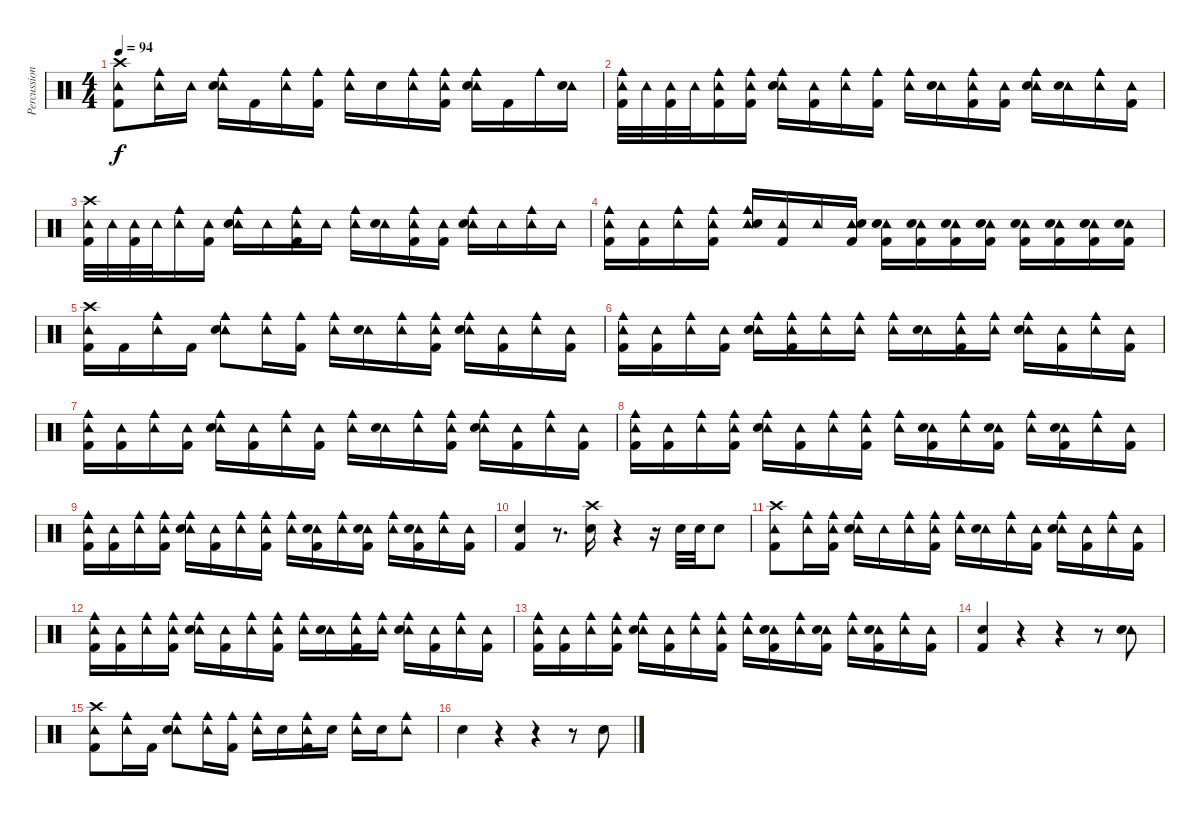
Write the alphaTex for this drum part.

\track ("Percussion" "Percussion") {instrument percussion}
\staff {score}
\articulation defaults
\ts (4 4)
\tempo 94
\clef neutral
\ks c
("Crash high (hit)" "Tambourine (hit)" "Kick (hit) 2").8{dy f} ("Tambourine (hit)" "Cowbell medium (hit)").16 "Tambourine (hit)".16 ("Tambourine (hit)" "Cowbell medium (hit)" "Electric Snare (hit)").16 "Kick (hit) 2".16 ("Tambourine (hit)" "Cowbell medium (hit)").16 ("Cowbell medium (hit)" "Kick (hit) 2").16 ("Tambourine (hit)" "Cowbell medium (hit)").16 "Electric Snare (hit)".16 ("Tambourine (hit)" "Cowbell medium (hit)").16 ("Tambourine (hit)" "Cowbell medium (hit)" "Kick (hit) 2").16 ("Tambourine (hit)" "Cowbell medium (hit)" "Electric Snare (hit)").16 "Kick (hit) 2".16 "Cowbell medium (hit)".16 ("Tambourine (hit)" "Electric Snare (hit)").16 |
("Tambourine (hit)" "Cowbell medium (hit)" "Kick (hit) 2").32 "Tambourine (hit)".32 ("Tambourine (hit)" "Kick (hit) 2").32 "Tambourine (hit)".32 ("Tambourine (hit)" "Cowbell medium (hit)" "Kick (hit) 2").16 ("Tambourine (hit)" "Cowbell medium (hit)" "Kick (hit) 2").16 ("Tambourine (hit)" "Cowbell medium (hit)" "Electric Snare (hit)").16 ("Tambourine (hit)" "Kick (hit) 2").16 ("Tambourine (hit)" "Cowbell medium (hit)").16 ("Cowbell medium (hit)" "Kick (hit) 2").16 ("Tambourine (hit)" "Cowbell medium (hit)").16 ("Tambourine (hit)" "Electric Snare (hit)").16 ("Tambourine (hit)" "Cowbell medium (hit)" "Kick (hit) 2").16 ("Tambourine (hit)" "Kick (hit) 2").16 ("Tambourine (hit)" "Cowbell medium (hit)" "Electric Snare (hit)").16 ("Tambourine (hit)" "Electric Snare (hit)").16 ("Tambourine (hit)" "Cowbell medium (hit)").16 ("Tambourine (hit)" "Kick (hit) 2").16 |
("Crash high (hit)" "Tambourine (hit)" "Kick (hit) 2").32 "Tambourine (hit)".32 ("Tambourine (hit)" "Kick (hit) 2").32 "Tambourine (hit)".32 ("Tambourine (hit)" "Cowbell medium (hit)").16 ("Tambourine (hit)" "Kick (hit) 2").16 ("Tambourine (hit)" "Cowbell medium (hit)" "Electric Snare (hit)").16 "Tambourine (hit)".16 ("Tambourine (hit)" "Cowbell medium (hit)" "Kick (hit) 2").16 "Tambourine (hit)".16 ("Tambourine (hit)" "Cowbell medium (hit)").16 ("Tambourine (hit)" "Electric Snare (hit)").16 ("Tambourine (hit)" "Cowbell medium (hit)" "Kick (hit) 2").16 ("Tambourine (hit)" "Kick (hit) 2").16 ("Tambourine (hit)" "Cowbell medium (hit)" "Electric Snare (hit)").16 "Tambourine (hit)".16 ("Tambourine (hit)" "Cowbell medium (hit)").16 "Tambourine (hit)".16 |
("Tambourine (hit)" "Cowbell medium (hit)" "Kick (hit) 2").16 ("Tambourine (hit)" "Kick (hit) 2").16 ("Tambourine (hit)" "Cowbell medium (hit)").16 ("Tambourine (hit)" "Cowbell medium (hit)" "Kick (hit) 2").16 ("Tambourine (hit)" "Cowbell medium (hit)" "Electric Snare (hit)").16 ("Tambourine (hit)" "Kick (hit) 2").16 "Tambourine (hit)".16 ("Tambourine (hit)" "Electric Snare (hit)" "Kick (hit) 2").16 ("Tambourine (hit)" "Electric Snare (hit)" "Kick (hit) 2").16 ("Tambourine (hit)" "Electric Snare (hit)" "Kick (hit) 2").16 ("Tambourine (hit)" "Electric Snare (hit)" "Kick (hit) 2").16 ("Tambourine (hit)" "Electric Snare (hit)" "Kick (hit) 2").16 ("Tambourine (hit)" "Electric Snare (hit)" "Kick (hit) 2").16 ("Tambourine (hit)" "Electric Snare (hit)" "Kick (hit) 2").16 ("Tambourine (hit)" "Electric Snare (hit)" "Kick (hit) 2").16 ("Tambourine (hit)" "Electric Snare (hit)" "Kick (hit) 2").16 |
("Crash high (hit)" "Tambourine (hit)" "Kick (hit) 2").16 "Kick (hit) 2".16 ("Tambourine (hit)" "Cowbell medium (hit)").16 "Kick (hit) 2".16 ("Tambourine (hit)" "Cowbell medium (hit)" "Electric Snare (hit)").8 ("Tambourine (hit)" "Cowbell medium (hit)").16 ("Cowbell medium (hit)" "Kick (hit) 2").16 ("Tambourine (hit)" "Cowbell medium (hit)").16 ("Tambourine (hit)" "Electric Snare (hit)").16 ("Tambourine (hit)" "Cowbell medium (hit)").16 ("Tambourine (hit)" "Cowbell medium (hit)" "Kick (hit) 2").16 ("Tambourine (hit)" "Cowbell medium (hit)" "Electric Snare (hit)").16 ("Tambourine (hit)" "Kick (hit) 2").16 ("Tambourine (hit)" "Cowbell medium (hit)").16 ("Tambourine (hit)" "Kick (hit) 2").16 |
("Tambourine (hit)" "Cowbell medium (hit)" "Kick (hit) 2").16 ("Tambourine (hit)" "Kick (hit) 2").16 ("Tambourine (hit)" "Cowbell medium (hit)").16 ("Tambourine (hit)" "Kick (hit) 2").16 ("Tambourine (hit)" "Cowbell medium (hit)" "Electric Snare (hit)").16 ("Tambourine (hit)" "Cowbell medium (hit)" "Kick (hit) 2").16 ("Tambourine (hit)" "Cowbell medium (hit)").16 ("Tambourine (hit)" "Cowbell medium (hit)").16 ("Tambourine (hit)" "Cowbell medium (hit)").16 ("Tambourine (hit)" "Electric Snare (hit)").16 ("Tambourine (hit)" "Cowbell medium (hit)" "Kick (hit) 2").16 ("Tambourine (hit)" "Cowbell medium (hit)").16 ("Tambourine (hit)" "Cowbell medium (hit)" "Electric Snare (hit)").16 ("Tambourine (hit)" "Kick (hit) 2").16 ("Tambourine (hit)" "Cowbell medium (hit)").16 ("Tambourine (hit)" "Kick (hit) 2").16 |
("Tambourine (hit)" "Cowbell medium (hit)" "Kick (hit) 2").16 ("Tambourine (hit)" "Kick (hit) 2").16 ("Tambourine (hit)" "Cowbell medium (hit)").16 ("Tambourine (hit)" "Kick (hit) 2").16 ("Tambourine (hit)" "Cowbell medium (hit)" "Electric Snare (hit)").16 ("Tambourine (hit)" "Kick (hit) 2").16 ("Tambourine (hit)" "Cowbell medium (hit)").16 ("Tambourine (hit)" "Kick (hit) 2").16 ("Tambourine (hit)" "Cowbell medium (hit)").16 ("Tambourine (hit)" "Electric Snare (hit)").16 ("Tambourine (hit)" "Cowbell medium (hit)").16 ("Tambourine (hit)" "Cowbell medium (hit)" "Kick (hit) 2").16 ("Tambourine (hit)" "Cowbell medium (hit)" "Electric Snare (hit)").16 ("Tambourine (hit)" "Kick (hit) 2").16 ("Tambourine (hit)" "Cowbell medium (hit)").16 ("Tambourine (hit)" "Kick (hit) 2").16 |
("Tambourine (hit)" "Cowbell medium (hit)" "Kick (hit) 2").16 ("Tambourine (hit)" "Kick (hit) 2").16 ("Tambourine (hit)" "Cowbell medium (hit)").16 ("Tambourine (hit)" "Cowbell medium (hit)" "Kick (hit) 2").16 ("Tambourine (hit)" "Cowbell medium (hit)" "Electric Snare (hit)").16 ("Tambourine (hit)" "Kick (hit) 2").16 ("Tambourine (hit)" "Cowbell medium (hit)").16 ("Tambourine (hit)" "Cowbell medium (hit)" "Kick (hit) 2").16 ("Tambourine (hit)" "Cowbell medium (hit)").16 ("Tambourine (hit)" "Electric Snare (hit)" "Kick (hit) 2").16 ("Tambourine (hit)" "Cowbell medium (hit)").16 ("Tambourine (hit)" "Electric Snare (hit)" "Kick (hit) 2").16 ("Tambourine (hit)" "Cowbell medium (hit)").16 ("Tambourine (hit)" "Electric Snare (hit)" "Kick (hit) 2").16 ("Tambourine (hit)" "Cowbell medium (hit)").16 ("Tambourine (hit)" "Kick (hit) 2").16 |
("Tambourine (hit)" "Cowbell medium (hit)" "Kick (hit) 2").16 ("Tambourine (hit)" "Kick (hit) 2").16 ("Tambourine (hit)" "Cowbell medium (hit)").16 ("Tambourine (hit)" "Cowbell medium (hit)" "Kick (hit) 2").16 ("Tambourine (hit)" "Cowbell medium (hit)" "Electric Snare (hit)").16 ("Tambourine (hit)" "Kick (hit) 2").16 ("Tambourine (hit)" "Cowbell medium (hit)").16 ("Tambourine (hit)" "Cowbell medium (hit)" "Kick (hit) 2").16 ("Tambourine (hit)" "Cowbell medium (hit)").16 ("Tambourine (hit)" "Electric Snare (hit)" "Kick (hit) 2").16 ("Tambourine (hit)" "Cowbell medium (hit)").16 ("Tambourine (hit)" "Electric Snare (hit)" "Kick (hit) 2").16 ("Tambourine (hit)" "Cowbell medium (hit)").16 ("Tambourine (hit)" "Electric Snare (hit)" "Kick (hit) 2").16 ("Tambourine (hit)" "Cowbell medium (hit)").16 ("Tambourine (hit)" "Kick (hit) 2").16 |
("Electric Snare (hit)" "Kick (hit) 2").4 r.8{d} ("Crash high (hit)" "Electric Snare (hit)").16 r.4 r.16 "Electric Snare (hit)".32 "Electric Snare (hit)".32 "Electric Snare (hit)".8 |
("Crash high (hit)" "Tambourine (hit)" "Kick (hit) 2").8 ("Tambourine (hit)" "Cowbell medium (hit)").16 ("Tambourine (hit)" "Cowbell medium (hit)" "Kick (hit) 2").16 ("Tambourine (hit)" "Cowbell medium (hit)" "Electric Snare (hit)").16 "Tambourine (hit)".16 ("Tambourine (hit)" "Cowbell medium (hit)").16 ("Tambourine (hit)" "Cowbell medium (hit)" "Kick (hit) 2").16 ("Tambourine (hit)" "Cowbell medium (hit)").16 ("Tambourine (hit)" "Electric Snare (hit)").16 ("Tambourine (hit)" "Cowbell medium (hit)").16 ("Tambourine (hit)" "Kick (hit) 2").16 ("Tambourine (hit)" "Cowbell medium (hit)" "Electric Snare (hit)").16 ("Tambourine (hit)" "Kick (hit) 2").16 ("Tambourine (hit)" "Cowbell medium (hit)").16 ("Tambourine (hit)" "Kick (hit) 2").16 |
("Tambourine (hit)" "Cowbell medium (hit)" "Kick (hit) 2").16 ("Tambourine (hit)" "Kick (hit) 2").16 ("Tambourine (hit)" "Cowbell medium (hit)").16 ("Tambourine (hit)" "Cowbell medium (hit)" "Kick (hit) 2").16 ("Tambourine (hit)" "Cowbell medium (hit)" "Electric Snare (hit)").16 ("Tambourine (hit)" "Kick (hit) 2").16 ("Tambourine (hit)" "Cowbell medium (hit)").16 ("Tambourine (hit)" "Cowbell medium (hit)" "Kick (hit) 2").16 ("Tambourine (hit)" "Cowbell medium (hit)").16 ("Tambourine (hit)" "Electric Snare (hit)").16 ("Tambourine (hit)" "Cowbell medium (hit)" "Kick (hit) 2").16 ("Tambourine (hit)" "Cowbell medium (hit)").16 ("Tambourine (hit)" "Cowbell medium (hit)" "Electric Snare (hit)").16 ("Tambourine (hit)" "Kick (hit) 2").16 ("Tambourine (hit)" "Cowbell medium (hit)").16 ("Tambourine (hit)" "Kick (hit) 2").16 |
("Tambourine (hit)" "Cowbell medium (hit)" "Kick (hit) 2").16 ("Tambourine (hit)" "Kick (hit) 2").16 ("Tambourine (hit)" "Cowbell medium (hit)").16 ("Tambourine (hit)" "Cowbell medium (hit)" "Kick (hit) 2").16 ("Tambourine (hit)" "Cowbell medium (hit)" "Electric Snare (hit)").16 ("Tambourine (hit)" "Kick (hit) 2").16 ("Tambourine (hit)" "Cowbell medium (hit)").16 ("Tambourine (hit)" "Cowbell medium (hit)" "Kick (hit) 2").16 ("Tambourine (hit)" "Cowbell medium (hit)").16 ("Tambourine (hit)" "Electric Snare (hit)" "Kick (hit) 2").16 ("Tambourine (hit)" "Cowbell medium (hit)").16 ("Tambourine (hit)" "Electric Snare (hit)" "Kick (hit) 2").16 ("Tambourine (hit)" "Cowbell medium (hit)").16 ("Tambourine (hit)" "Electric Snare (hit)" "Kick (hit) 2").16 ("Tambourine (hit)" "Cowbell medium (hit)").16 ("Tambourine (hit)" "Kick (hit) 2").16 |
("Electric Snare (hit)" "Kick (hit) 2").4 r.4 r.4 r.8 ("Tambourine (hit)" "Electric Snare (hit)").8 |
("Crash high (hit)" "Tambourine (hit)" "Kick (hit) 2").8 ("Tambourine (hit)" "Cowbell medium (hit)").16 "Kick (hit) 2".16 ("Tambourine (hit)" "Cowbell medium (hit)" "Electric Snare (hit)").8 ("Tambourine (hit)" "Cowbell medium (hit)").16 ("Cowbell medium (hit)" "Kick (hit) 2").16 ("Tambourine (hit)" "Cowbell medium (hit)").16 "Electric Snare (hit)".16 ("Tambourine (hit)" "Cowbell medium (hit)" "Kick (hit) 2").16 "Electric Snare (hit)".16 ("Tambourine (hit)" "Cowbell medium (hit)").16 "Electric Snare (hit)".16 ("Tambourine (hit)" "Cowbell medium (hit)").8 |
"Electric Snare (hit)".4 r.4 r.4 r.8 "Electric Snare (hit)".8
